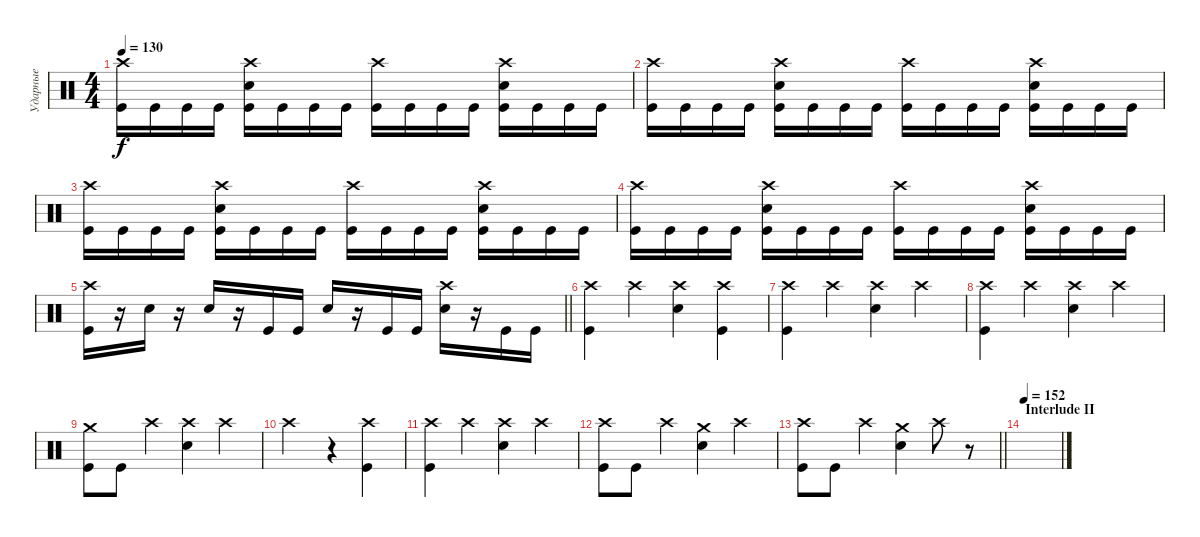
\track ("Ударные" "Ударные") {instrument percussion}
\staff {score}
\articulation defaults
\ts (4 4)
\tempo 130
\clef neutral
\ks c
("Crash high (hit)" "Kick (hit)").16{dy f} "Kick (hit)".16 "Kick (hit)".16 "Kick (hit)".16 ("Crash high (hit)" "Electric Snare (hit)" "Kick (hit)").16 "Kick (hit)".16 "Kick (hit)".16 "Kick (hit)".16 ("Crash high (hit)" "Kick (hit)").16 "Kick (hit)".16 "Kick (hit)".16 "Kick (hit)".16 ("Crash high (hit)" "Electric Snare (hit)" "Kick (hit)").16 "Kick (hit)".16 "Kick (hit)".16 "Kick (hit)".16 |
("Crash high (hit)" "Kick (hit)").16 "Kick (hit)".16 "Kick (hit)".16 "Kick (hit)".16 ("Crash high (hit)" "Electric Snare (hit)" "Kick (hit)").16 "Kick (hit)".16 "Kick (hit)".16 "Kick (hit)".16 ("Crash high (hit)" "Kick (hit)").16 "Kick (hit)".16 "Kick (hit)".16 "Kick (hit)".16 ("Crash high (hit)" "Electric Snare (hit)" "Kick (hit)").16 "Kick (hit)".16 "Kick (hit)".16 "Kick (hit)".16 |
("Crash high (hit)" "Kick (hit)").16 "Kick (hit)".16 "Kick (hit)".16 "Kick (hit)".16 ("Crash high (hit)" "Electric Snare (hit)" "Kick (hit)").16 "Kick (hit)".16 "Kick (hit)".16 "Kick (hit)".16 ("Crash high (hit)" "Kick (hit)").16 "Kick (hit)".16 "Kick (hit)".16 "Kick (hit)".16 ("Crash high (hit)" "Electric Snare (hit)" "Kick (hit)").16 "Kick (hit)".16 "Kick (hit)".16 "Kick (hit)".16 |
("Crash high (hit)" "Kick (hit)").16 "Kick (hit)".16 "Kick (hit)".16 "Kick (hit)".16 ("Crash high (hit)" "Electric Snare (hit)" "Kick (hit)").16 "Kick (hit)".16 "Kick (hit)".16 "Kick (hit)".16 ("Crash high (hit)" "Kick (hit)").16 "Kick (hit)".16 "Kick (hit)".16 "Kick (hit)".16 ("Crash high (hit)" "Electric Snare (hit)" "Kick (hit)").16 "Kick (hit)".16 "Kick (hit)".16 "Kick (hit)".16 |
\barLineRight lightlight
("Crash high (hit)" "Kick (hit)").16 r.16 "Electric Snare (hit)".16 r.16 "Electric Snare (hit)".16 r.16 "Kick (hit)".16 "Kick (hit)".16 "Electric Snare (hit)".16 r.16 "Kick (hit)".16 "Kick (hit)".16 ("Crash high (hit)" "Electric Snare (hit)").16 r.16 "Kick (hit)".16 "Kick (hit)".16 |
("Crash high (hit)" "Kick (hit)").4 "Crash high (hit)".4 ("Crash high (hit)" "Electric Snare (hit)").4 ("Crash high (hit)" "Kick (hit)").4 |
("Crash high (hit)" "Kick (hit)").4 "Crash high (hit)".4 ("Crash high (hit)" "Electric Snare (hit)").4 "Crash high (hit)".4 |
("Crash high (hit)" "Kick (hit)").4 "Crash high (hit)".4 ("Crash high (hit)" "Electric Snare (hit)").4 "Crash high (hit)".4 |
("Crash medium (hit)" "Kick (hit)").8 "Kick (hit)".8 "Crash high (hit)".4 ("Crash high (hit)" "Electric Snare (hit)").4 "Crash high (hit)".4 |
"Crash high (hit)".2 r.4 ("Crash high (hit)" "Kick (hit)").4 |
("Crash high (hit)" "Kick (hit)").4 "Crash high (hit)".4 ("Crash high (hit)" "Electric Snare (hit)").4 "Crash high (hit)".4 |
("Crash high (hit)" "Kick (hit)").8 "Kick (hit)".8 "Crash high (hit)".4 ("Crash medium (hit)" "Electric Snare (hit)").4 "Crash high (hit)".4 |
\barLineRight lightlight
("Crash high (hit)" "Kick (hit)").8 "Kick (hit)".8 "Crash high (hit)".4 ("Crash medium (hit)" "Electric Snare (hit)").4 "Crash high (hit)".8 r.8 |
\section ("" "Interlude II")
\tempo 152
